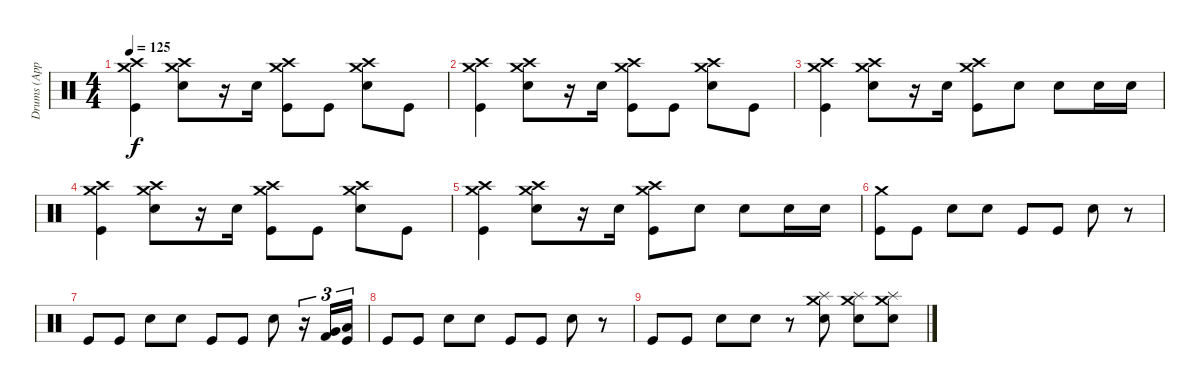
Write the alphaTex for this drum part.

\track ("Drums (Approx.)" "Drums (App") {instrument percussion}
\staff {score}
\articulation defaults
\ts (4 4)
\tempo 125
\clef neutral
\ks c
("Crash medium (hit)" "Crash high (hit)" "Kick (hit)").4{dy f} ("Crash medium (hit)" "Crash high (hit)" "Electric Snare (hit)").8 r.16 "Electric Snare (hit)".16 ("Crash medium (hit)" "Crash high (hit)" "Kick (hit)").8 "Kick (hit)".8 ("Crash medium (hit)" "Crash high (hit)" "Electric Snare (hit)").8 "Kick (hit)".8 |
("Crash medium (hit)" "Crash high (hit)" "Kick (hit)").4 ("Crash medium (hit)" "Crash high (hit)" "Electric Snare (hit)").8 r.16 "Electric Snare (hit)".16 ("Crash medium (hit)" "Crash high (hit)" "Kick (hit)").8 "Kick (hit)".8 ("Crash medium (hit)" "Crash high (hit)" "Electric Snare (hit)").8 "Kick (hit)".8 |
("Crash medium (hit)" "Crash high (hit)" "Kick (hit)").4 ("Crash medium (hit)" "Crash high (hit)" "Electric Snare (hit)").8 r.16 "Electric Snare (hit)".16 ("Crash medium (hit)" "Crash high (hit)" "Kick (hit)").8 "Electric Snare (hit)".8 "Electric Snare (hit)".8 "Electric Snare (hit)".16 "Electric Snare (hit)".16 |
("Crash medium (hit)" "Crash high (hit)" "Kick (hit)").4 ("Crash medium (hit)" "Crash high (hit)" "Electric Snare (hit)").8 r.16 "Electric Snare (hit)".16 ("Crash medium (hit)" "Crash high (hit)" "Kick (hit)").8 "Kick (hit)".8 ("Crash medium (hit)" "Crash high (hit)" "Electric Snare (hit)").8 "Kick (hit)".8 |
("Crash medium (hit)" "Crash high (hit)" "Kick (hit)").4 ("Crash medium (hit)" "Crash high (hit)" "Electric Snare (hit)").8 r.16 "Electric Snare (hit)".16 ("Crash medium (hit)" "Crash high (hit)" "Kick (hit)").8 "Electric Snare (hit)".8 "Electric Snare (hit)".8 "Electric Snare (hit)".16 "Electric Snare (hit)".16 |
("Crash medium (hit)" "Kick (hit)").8 "Kick (hit)".8 "Electric Snare (hit)".8 "Electric Snare (hit)".8 "Kick (hit)".8 "Kick (hit)".8 "Electric Snare (hit)".8 r.8 |
"Kick (hit)".8 "Kick (hit)".8 "Electric Snare (hit)".8 "Electric Snare (hit)".8 "Kick (hit)".8 "Kick (hit)".8 "Electric Snare (hit)".8 r.16{tu (3 2)} ("Kick (hit) 2" "Very Low Tom (hit)").16{tu (3 2)} ("Kick (hit)" "Low Floor Tom (hit)").16{tu (3 2)} |
"Kick (hit)".8 "Kick (hit)".8 "Electric Snare (hit)".8 "Electric Snare (hit)".8 "Kick (hit)".8 "Kick (hit)".8 "Electric Snare (hit)".8 r.8 |
"Kick (hit)".8 "Kick (hit)".8 "Electric Snare (hit)".8 "Electric Snare (hit)".8 r.8 ("Crash medium (hit)" "Splash (hit)" "Electric Snare (hit)").8 ("Crash medium (hit)" "Splash (hit)" "Electric Snare (hit)").8 ("Crash medium (hit)" "Splash (hit)" "Electric Snare (hit)").8
